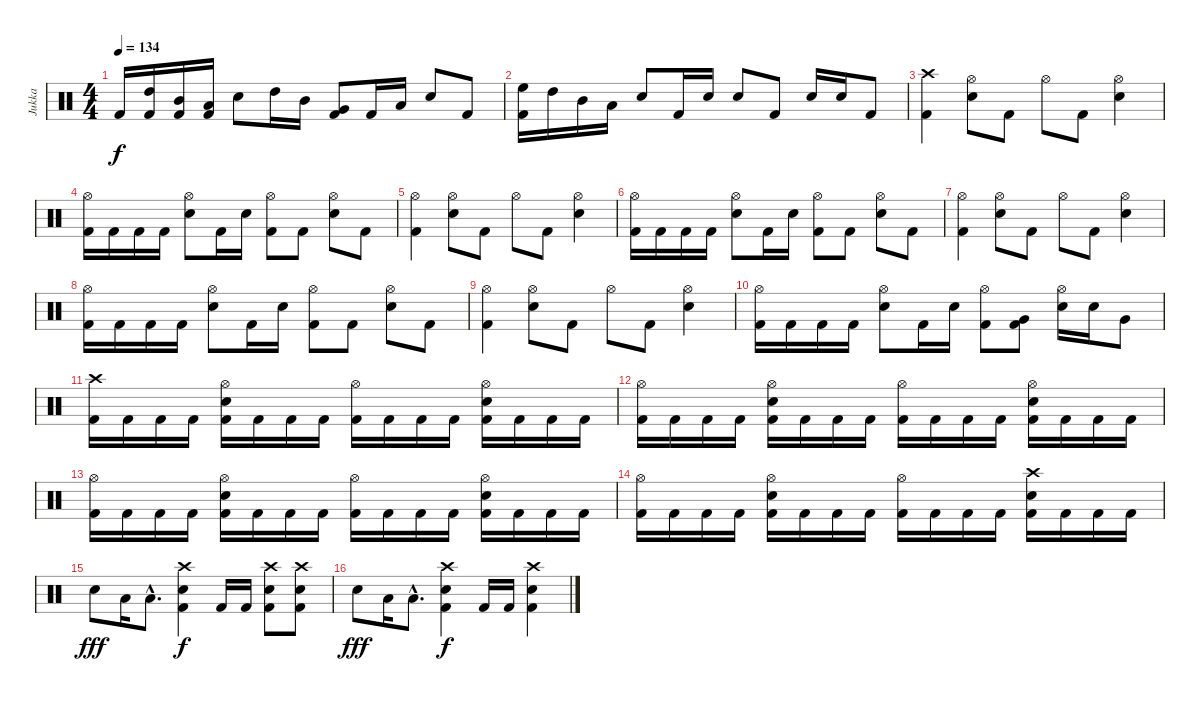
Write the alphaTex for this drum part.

\track ("Jukka" "Jukka") {instrument percussion}
\staff {score}
\articulation defaults
\ts (4 4)
\tempo 134
\clef neutral
\ks c "Kick (hit) 2".16{dy f}
("High Tom (hit)" "Kick (hit) 2").16 ("Mid Tom (hit)" "Kick (hit) 2").16 ("Low Tom (hit)" "Kick (hit) 2").16 "Electric Snare (hit)".8 "High Tom (hit)".16 "Mid Tom (hit)".16 ("Very Low Tom (hit)" "Kick (hit) 2").8 "Kick (hit) 2".16 "Low Tom (hit)".16 "Electric Snare (hit)".8 "Kick (hit) 2".8 |
("High Floor Tom (hit)" "Kick (hit) 2").16 "High Tom (hit)".16 "Mid Tom (hit)".16 "Low Tom (hit)".16 "Electric Snare (hit)".8 "Kick (hit) 2".16 "Electric Snare (hit)".16 "Electric Snare (hit)".8 "Kick (hit) 2".8 "Electric Snare (hit)".16 "Electric Snare (hit)".16 "Kick (hit) 2".8 |
("Crash high (hit)" "Kick (hit) 2").4 ("Hi-Hat (open)" "Electric Snare (hit)").8 "Kick (hit) 2".8 "Hi-Hat (open)".8 "Kick (hit) 2".8 ("Hi-Hat (open)" "Electric Snare (hit)").4 |
("Hi-Hat (open)" "Kick (hit) 2").16 "Kick (hit) 2".16 "Kick (hit) 2".16 "Kick (hit) 2".16 ("Hi-Hat (open)" "Electric Snare (hit)").8 "Kick (hit) 2".16 "Electric Snare (hit)".16 ("Hi-Hat (open)" "Kick (hit) 2").8 "Kick (hit) 2".8 ("Hi-Hat (open)" "Electric Snare (hit)").8 "Kick (hit) 2".8 |
("Hi-Hat (open)" "Kick (hit) 2").4 ("Hi-Hat (open)" "Electric Snare (hit)").8 "Kick (hit) 2".8 "Hi-Hat (open)".8 "Kick (hit) 2".8 ("Hi-Hat (open)" "Electric Snare (hit)").4 |
("Hi-Hat (open)" "Kick (hit) 2").16 "Kick (hit) 2".16 "Kick (hit) 2".16 "Kick (hit) 2".16 ("Hi-Hat (open)" "Electric Snare (hit)").8 "Kick (hit) 2".16 "Electric Snare (hit)".16 ("Hi-Hat (open)" "Kick (hit) 2").8 "Kick (hit) 2".8 ("Hi-Hat (open)" "Electric Snare (hit)").8 "Kick (hit) 2".8 |
("Hi-Hat (open)" "Kick (hit) 2").4 ("Hi-Hat (open)" "Electric Snare (hit)").8 "Kick (hit) 2".8 "Hi-Hat (open)".8 "Kick (hit) 2".8 ("Hi-Hat (open)" "Electric Snare (hit)").4 |
("Hi-Hat (open)" "Kick (hit) 2").16 "Kick (hit) 2".16 "Kick (hit) 2".16 "Kick (hit) 2".16 ("Hi-Hat (open)" "Electric Snare (hit)").8 "Kick (hit) 2".16 "Electric Snare (hit)".16 ("Hi-Hat (open)" "Kick (hit) 2").8 "Kick (hit) 2".8 ("Hi-Hat (open)" "Electric Snare (hit)").8 "Kick (hit) 2".8 |
("Hi-Hat (open)" "Kick (hit) 2").4 ("Hi-Hat (open)" "Electric Snare (hit)").8 "Kick (hit) 2".8 "Hi-Hat (open)".8 "Kick (hit) 2".8 ("Hi-Hat (open)" "Electric Snare (hit)").4 |
("Hi-Hat (open)" "Kick (hit) 2").16 "Kick (hit) 2".16 "Kick (hit) 2".16 "Kick (hit) 2".16 ("Hi-Hat (open)" "Electric Snare (hit)").8 "Kick (hit) 2".16 "Electric Snare (hit)".16 ("Hi-Hat (open)" "Kick (hit) 2").8 ("Very Low Tom (hit)" "Kick (hit) 2").8 ("Hi-Hat (open)" "Electric Snare (hit)").16 "Electric Snare (hit)".16 "Very Low Tom (hit)".8 |
("Crash high (hit)" "Kick (hit) 2").16 "Kick (hit) 2".16 "Kick (hit) 2".16 "Kick (hit) 2".16 ("Hi-Hat (open)" "Electric Snare (hit)" "Kick (hit) 2").16 "Kick (hit) 2".16 "Kick (hit) 2".16 "Kick (hit) 2".16 ("Hi-Hat (open)" "Kick (hit) 2").16 "Kick (hit) 2".16 "Kick (hit) 2".16 "Kick (hit) 2".16 ("Hi-Hat (open)" "Electric Snare (hit)" "Kick (hit) 2").16 "Kick (hit) 2".16 "Kick (hit) 2".16 "Kick (hit) 2".16 |
("Hi-Hat (open)" "Kick (hit) 2").16 "Kick (hit) 2".16 "Kick (hit) 2".16 "Kick (hit) 2".16 ("Hi-Hat (open)" "Electric Snare (hit)" "Kick (hit) 2").16 "Kick (hit) 2".16 "Kick (hit) 2".16 "Kick (hit) 2".16 ("Hi-Hat (open)" "Kick (hit) 2").16 "Kick (hit) 2".16 "Kick (hit) 2".16 "Kick (hit) 2".16 ("Hi-Hat (open)" "Electric Snare (hit)" "Kick (hit) 2").16 "Kick (hit) 2".16 "Kick (hit) 2".16 "Kick (hit) 2".16 |
("Hi-Hat (open)" "Kick (hit) 2").16 "Kick (hit) 2".16 "Kick (hit) 2".16 "Kick (hit) 2".16 ("Hi-Hat (open)" "Electric Snare (hit)" "Kick (hit) 2").16 "Kick (hit) 2".16 "Kick (hit) 2".16 "Kick (hit) 2".16 ("Hi-Hat (open)" "Kick (hit) 2").16 "Kick (hit) 2".16 "Kick (hit) 2".16 "Kick (hit) 2".16 ("Hi-Hat (open)" "Electric Snare (hit)" "Kick (hit) 2").16 "Kick (hit) 2".16 "Kick (hit) 2".16 "Kick (hit) 2".16 |
("Hi-Hat (open)" "Kick (hit) 2").16 "Kick (hit) 2".16 "Kick (hit) 2".16 "Kick (hit) 2".16 ("Hi-Hat (open)" "Electric Snare (hit)" "Kick (hit) 2").16 "Kick (hit) 2".16 "Kick (hit) 2".16 "Kick (hit) 2".16 ("Hi-Hat (open)" "Kick (hit) 2").16 "Kick (hit) 2".16 "Kick (hit) 2".16 "Kick (hit) 2".16 ("Crash high (hit)" "Electric Snare (hit)" "Kick (hit) 2").16 "Kick (hit) 2".16 "Kick (hit) 2".16 "Kick (hit) 2".16 |
"Electric Snare (hit)".8{dy fff} "Low Tom (hit)".16 "Low Tom (hit)"{hac}.8{d} ("Crash high (hit)" "Electric Snare (hit)" "Kick (hit) 2").4{dy f} "Kick (hit) 2".16 "Kick (hit) 2".16 ("Crash high (hit)" "Electric Snare (hit)" "Kick (hit) 2").8 ("Crash high (hit)" "Electric Snare (hit)" "Kick (hit) 2").8 |
"Electric Snare (hit)".8{dy fff} "Low Tom (hit)".16 "Low Tom (hit)"{hac}.8{d} ("Crash high (hit)" "Electric Snare (hit)" "Kick (hit) 2").4{dy f} "Kick (hit) 2".16 "Kick (hit) 2".16 ("Crash high (hit)" "Electric Snare (hit)" "Kick (hit) 2").4
